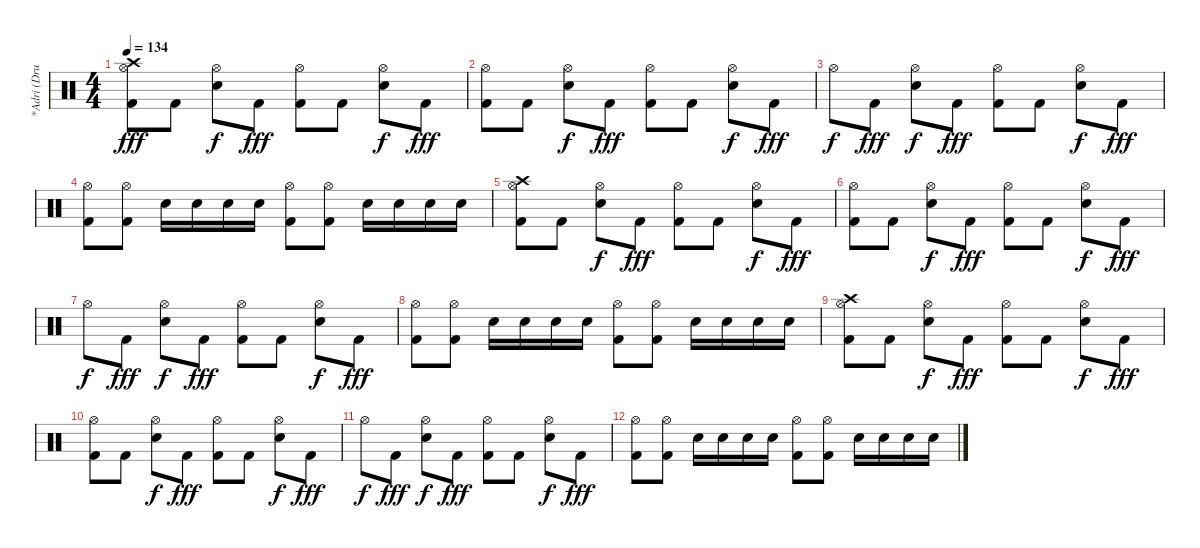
\track ("*Adri (Drum)" "*Adri (Dru") {instrument percussion}
\staff {score}
\articulation defaults
\ts (4 4)
\tempo 134
\clef neutral
\ks c
("Crash high (hit)" "Hi-Hat (open)" "Kick (hit) 2").8{dy fff} "Kick (hit) 2".8 ("Hi-Hat (open)" "Snare (hit) 2").8{dy f} "Kick (hit) 2".8{dy fff} ("Hi-Hat (open)" "Kick (hit) 2").8 "Kick (hit) 2".8 ("Hi-Hat (open)" "Snare (hit) 2").8{dy f} "Kick (hit) 2".8{dy fff} |
("Hi-Hat (open)" "Kick (hit) 2").8 "Kick (hit) 2".8 ("Hi-Hat (open)" "Snare (hit) 2").8{dy f} "Kick (hit) 2".8{dy fff} ("Hi-Hat (open)" "Kick (hit) 2").8 "Kick (hit) 2".8 ("Hi-Hat (open)" "Snare (hit) 2").8{dy f} "Kick (hit) 2".8{dy fff} |
"Hi-Hat (open)".8{dy f} "Kick (hit) 2".8{dy fff} ("Hi-Hat (open)" "Snare (hit) 2").8{dy f} "Kick (hit) 2".8{dy fff} ("Hi-Hat (open)" "Kick (hit) 2").8 "Kick (hit) 2".8 ("Hi-Hat (open)" "Snare (hit) 2").8{dy f} "Kick (hit) 2".8{dy fff} |
("Hi-Hat (open)" "Kick (hit) 2").8 ("Hi-Hat (open)" "Kick (hit) 2").8 "Snare (hit) 2".16 "Snare (hit) 2".16 "Snare (hit) 2".16 "Snare (hit) 2".16 ("Hi-Hat (open)" "Kick (hit) 2").8 ("Hi-Hat (open)" "Kick (hit) 2").8 "Snare (hit) 2".16 "Snare (hit) 2".16 "Snare (hit) 2".16 "Snare (hit) 2".16 |
("Crash high (hit)" "Hi-Hat (open)" "Kick (hit) 2").8 "Kick (hit) 2".8 ("Hi-Hat (open)" "Snare (hit) 2").8{dy f} "Kick (hit) 2".8{dy fff} ("Hi-Hat (open)" "Kick (hit) 2").8 "Kick (hit) 2".8 ("Hi-Hat (open)" "Snare (hit) 2").8{dy f} "Kick (hit) 2".8{dy fff} |
("Hi-Hat (open)" "Kick (hit) 2").8 "Kick (hit) 2".8 ("Hi-Hat (open)" "Snare (hit) 2").8{dy f} "Kick (hit) 2".8{dy fff} ("Hi-Hat (open)" "Kick (hit) 2").8 "Kick (hit) 2".8 ("Hi-Hat (open)" "Snare (hit) 2").8{dy f} "Kick (hit) 2".8{dy fff} |
"Hi-Hat (open)".8{dy f} "Kick (hit) 2".8{dy fff} ("Hi-Hat (open)" "Snare (hit) 2").8{dy f} "Kick (hit) 2".8{dy fff} ("Hi-Hat (open)" "Kick (hit) 2").8 "Kick (hit) 2".8 ("Hi-Hat (open)" "Snare (hit) 2").8{dy f} "Kick (hit) 2".8{dy fff} |
("Hi-Hat (open)" "Kick (hit) 2").8 ("Hi-Hat (open)" "Kick (hit) 2").8 "Snare (hit) 2".16 "Snare (hit) 2".16 "Snare (hit) 2".16 "Snare (hit) 2".16 ("Hi-Hat (open)" "Kick (hit) 2").8 ("Hi-Hat (open)" "Kick (hit) 2").8 "Snare (hit) 2".16 "Snare (hit) 2".16 "Snare (hit) 2".16 "Snare (hit) 2".16 |
("Crash high (hit)" "Hi-Hat (open)" "Kick (hit) 2").8 "Kick (hit) 2".8 ("Hi-Hat (open)" "Snare (hit) 2").8{dy f} "Kick (hit) 2".8{dy fff} ("Hi-Hat (open)" "Kick (hit) 2").8 "Kick (hit) 2".8 ("Hi-Hat (open)" "Snare (hit) 2").8{dy f} "Kick (hit) 2".8{dy fff} |
("Hi-Hat (open)" "Kick (hit) 2").8 "Kick (hit) 2".8 ("Hi-Hat (open)" "Snare (hit) 2").8{dy f} "Kick (hit) 2".8{dy fff} ("Hi-Hat (open)" "Kick (hit) 2").8 "Kick (hit) 2".8 ("Hi-Hat (open)" "Snare (hit) 2").8{dy f} "Kick (hit) 2".8{dy fff} |
"Hi-Hat (open)".8{dy f} "Kick (hit) 2".8{dy fff} ("Hi-Hat (open)" "Snare (hit) 2").8{dy f} "Kick (hit) 2".8{dy fff} ("Hi-Hat (open)" "Kick (hit) 2").8 "Kick (hit) 2".8 ("Hi-Hat (open)" "Snare (hit) 2").8{dy f} "Kick (hit) 2".8{dy fff} |
("Hi-Hat (open)" "Kick (hit) 2").8 ("Hi-Hat (open)" "Kick (hit) 2").8 "Snare (hit) 2".16 "Snare (hit) 2".16 "Snare (hit) 2".16 "Snare (hit) 2".16 ("Hi-Hat (open)" "Kick (hit) 2").8 ("Hi-Hat (open)" "Kick (hit) 2").8 "Snare (hit) 2".16 "Snare (hit) 2".16 "Snare (hit) 2".16 "Snare (hit) 2".16
